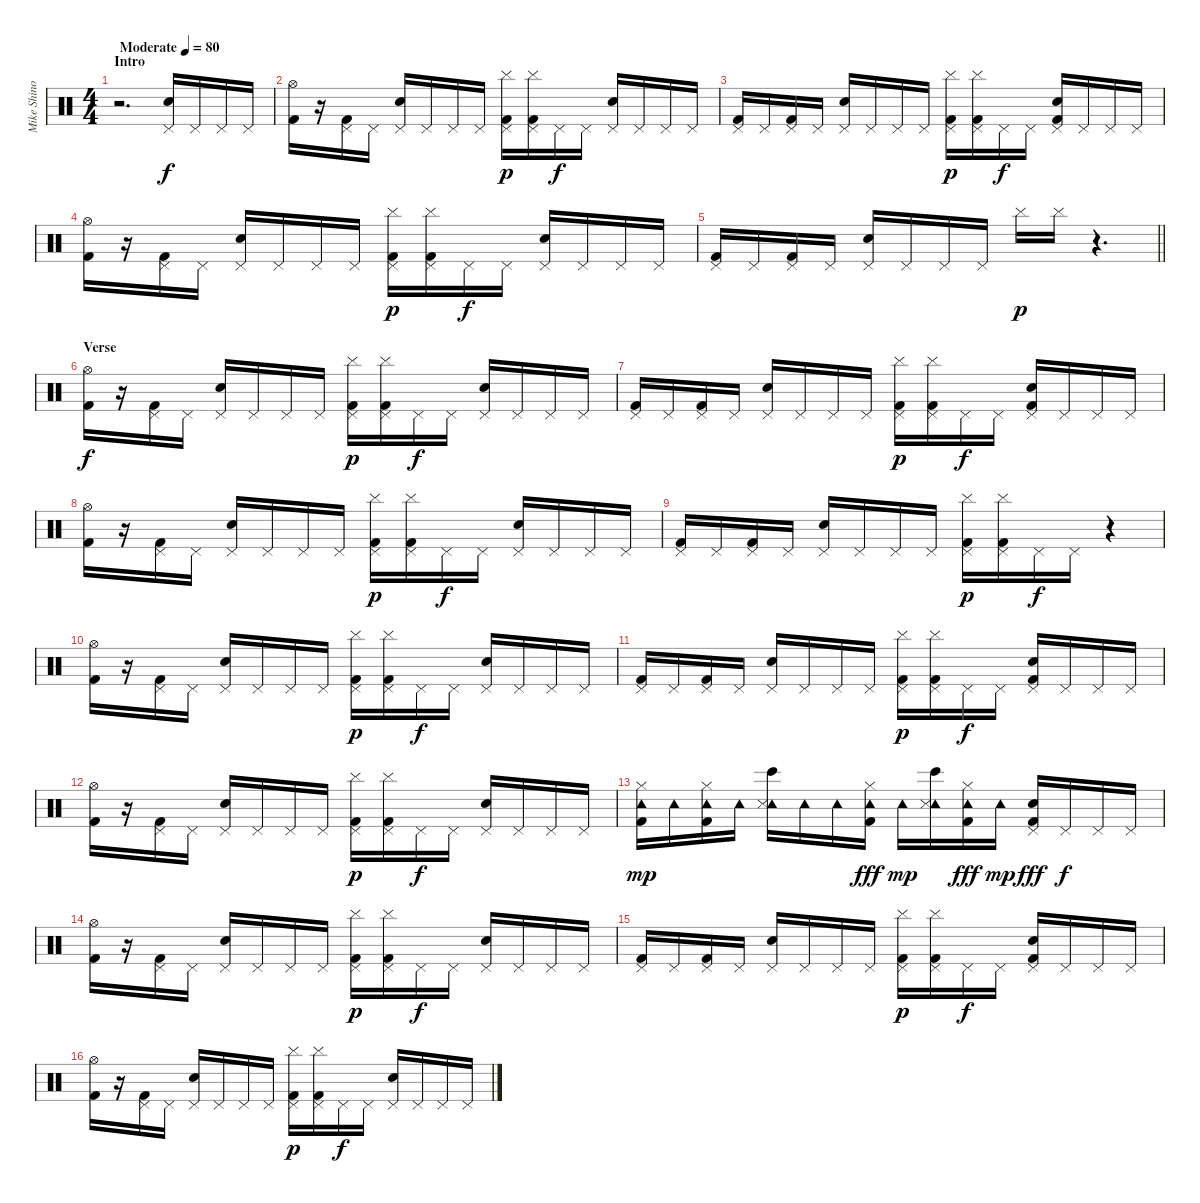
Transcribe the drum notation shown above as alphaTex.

\track ("Mike Shinoda - Percussion" "Mike Shino") {instrument percussion}
\staff {score}
\articulation defaults
\ts (4 4)
\section ("" "Intro")
\tempo (80 "Moderate")
\clef neutral
\ks c
r.2{d dy f} ("Pedal Hi-Hat (hit)" "Electric Snare (hit)").16 "Pedal Hi-Hat (hit)".16 "Pedal Hi-Hat (hit)".16 "Pedal Hi-Hat (hit)".16 |
("Hi-Hat (open)" "Kick (hit) 2").16 r.16 ("Pedal Hi-Hat (hit)" "Kick (hit) 2").16 "Pedal Hi-Hat (hit)".16 ("Pedal Hi-Hat (hit)" "Electric Snare (hit)").16 "Pedal Hi-Hat (hit)".16 "Pedal Hi-Hat (hit)".16 "Pedal Hi-Hat (hit)".16 ("Pedal Hi-Hat (hit)" "Cymbal (hit)" "Kick (hit) 2").16{dy p} ("Pedal Hi-Hat (hit)" "Cymbal (hit)" "Kick (hit) 2").16 "Pedal Hi-Hat (hit)".16{dy f} "Pedal Hi-Hat (hit)".16 ("Pedal Hi-Hat (hit)" "Electric Snare (hit)").16 "Pedal Hi-Hat (hit)".16 "Pedal Hi-Hat (hit)".16 "Pedal Hi-Hat (hit)".16 |
("Pedal Hi-Hat (hit)" "Kick (hit) 2").16 "Pedal Hi-Hat (hit)".16 ("Pedal Hi-Hat (hit)" "Kick (hit) 2").16 "Pedal Hi-Hat (hit)".16 ("Pedal Hi-Hat (hit)" "Electric Snare (hit)").16 "Pedal Hi-Hat (hit)".16 "Pedal Hi-Hat (hit)".16 "Pedal Hi-Hat (hit)".16 ("Pedal Hi-Hat (hit)" "Cymbal (hit)" "Kick (hit) 2").16{dy p} ("Pedal Hi-Hat (hit)" "Cymbal (hit)" "Kick (hit) 2").16 "Pedal Hi-Hat (hit)".16{dy f} "Pedal Hi-Hat (hit)".16 ("Pedal Hi-Hat (hit)" "Electric Snare (hit)" "Kick (hit) 2").16 "Pedal Hi-Hat (hit)".16 "Pedal Hi-Hat (hit)".16 "Pedal Hi-Hat (hit)".16 |
("Hi-Hat (open)" "Kick (hit) 2").16 r.16 ("Pedal Hi-Hat (hit)" "Kick (hit) 2").16 "Pedal Hi-Hat (hit)".16 ("Pedal Hi-Hat (hit)" "Electric Snare (hit)").16 "Pedal Hi-Hat (hit)".16 "Pedal Hi-Hat (hit)".16 "Pedal Hi-Hat (hit)".16 ("Pedal Hi-Hat (hit)" "Cymbal (hit)" "Kick (hit) 2").16{dy p} ("Pedal Hi-Hat (hit)" "Cymbal (hit)" "Kick (hit) 2").16 "Pedal Hi-Hat (hit)".16{dy f} "Pedal Hi-Hat (hit)".16 ("Pedal Hi-Hat (hit)" "Electric Snare (hit)").16 "Pedal Hi-Hat (hit)".16 "Pedal Hi-Hat (hit)".16 "Pedal Hi-Hat (hit)".16 |
\barLineRight lightlight
("Pedal Hi-Hat (hit)" "Kick (hit) 2").16 "Pedal Hi-Hat (hit)".16 ("Pedal Hi-Hat (hit)" "Kick (hit) 2").16 "Pedal Hi-Hat (hit)".16 ("Pedal Hi-Hat (hit)" "Electric Snare (hit)").16 "Pedal Hi-Hat (hit)".16 "Pedal Hi-Hat (hit)".16 "Pedal Hi-Hat (hit)".16 "Cymbal (hit)".16{dy p} "Cymbal (hit)".16 r.4{d} |
\section ("" "Verse")
("Hi-Hat (open)" "Kick (hit) 2").16{dy f} r.16 ("Pedal Hi-Hat (hit)" "Kick (hit) 2").16 "Pedal Hi-Hat (hit)".16 ("Pedal Hi-Hat (hit)" "Electric Snare (hit)").16 "Pedal Hi-Hat (hit)".16 "Pedal Hi-Hat (hit)".16 "Pedal Hi-Hat (hit)".16 ("Pedal Hi-Hat (hit)" "Cymbal (hit)" "Kick (hit) 2").16{dy p} ("Pedal Hi-Hat (hit)" "Cymbal (hit)" "Kick (hit) 2").16 "Pedal Hi-Hat (hit)".16{dy f} "Pedal Hi-Hat (hit)".16 ("Pedal Hi-Hat (hit)" "Electric Snare (hit)").16 "Pedal Hi-Hat (hit)".16 "Pedal Hi-Hat (hit)".16 "Pedal Hi-Hat (hit)".16 |
("Pedal Hi-Hat (hit)" "Kick (hit) 2").16 "Pedal Hi-Hat (hit)".16 ("Pedal Hi-Hat (hit)" "Kick (hit) 2").16 "Pedal Hi-Hat (hit)".16 ("Pedal Hi-Hat (hit)" "Electric Snare (hit)").16 "Pedal Hi-Hat (hit)".16 "Pedal Hi-Hat (hit)".16 "Pedal Hi-Hat (hit)".16 ("Pedal Hi-Hat (hit)" "Cymbal (hit)" "Kick (hit) 2").16{dy p} ("Pedal Hi-Hat (hit)" "Cymbal (hit)" "Kick (hit) 2").16 "Pedal Hi-Hat (hit)".16{dy f} "Pedal Hi-Hat (hit)".16 ("Pedal Hi-Hat (hit)" "Electric Snare (hit)" "Kick (hit) 2").16 "Pedal Hi-Hat (hit)".16 "Pedal Hi-Hat (hit)".16 "Pedal Hi-Hat (hit)".16 |
("Hi-Hat (open)" "Kick (hit) 2").16 r.16 ("Pedal Hi-Hat (hit)" "Kick (hit) 2").16 "Pedal Hi-Hat (hit)".16 ("Pedal Hi-Hat (hit)" "Electric Snare (hit)").16 "Pedal Hi-Hat (hit)".16 "Pedal Hi-Hat (hit)".16 "Pedal Hi-Hat (hit)".16 ("Pedal Hi-Hat (hit)" "Cymbal (hit)" "Kick (hit) 2").16{dy p} ("Pedal Hi-Hat (hit)" "Cymbal (hit)" "Kick (hit) 2").16 "Pedal Hi-Hat (hit)".16{dy f} "Pedal Hi-Hat (hit)".16 ("Pedal Hi-Hat (hit)" "Electric Snare (hit)").16 "Pedal Hi-Hat (hit)".16 "Pedal Hi-Hat (hit)".16 "Pedal Hi-Hat (hit)".16 |
("Pedal Hi-Hat (hit)" "Kick (hit) 2").16 "Pedal Hi-Hat (hit)".16 ("Pedal Hi-Hat (hit)" "Kick (hit) 2").16 "Pedal Hi-Hat (hit)".16 ("Pedal Hi-Hat (hit)" "Electric Snare (hit)").16 "Pedal Hi-Hat (hit)".16 "Pedal Hi-Hat (hit)".16 "Pedal Hi-Hat (hit)".16 ("Pedal Hi-Hat (hit)" "Cymbal (hit)" "Kick (hit) 2").16{dy p} ("Pedal Hi-Hat (hit)" "Cymbal (hit)" "Kick (hit) 2").16 "Pedal Hi-Hat (hit)".16{dy f} "Pedal Hi-Hat (hit)".16 r.4 |
("Hi-Hat (open)" "Kick (hit) 2").16 r.16 ("Pedal Hi-Hat (hit)" "Kick (hit) 2").16 "Pedal Hi-Hat (hit)".16 ("Pedal Hi-Hat (hit)" "Electric Snare (hit)").16 "Pedal Hi-Hat (hit)".16 "Pedal Hi-Hat (hit)".16 "Pedal Hi-Hat (hit)".16 ("Pedal Hi-Hat (hit)" "Cymbal (hit)" "Kick (hit) 2").16{dy p} ("Pedal Hi-Hat (hit)" "Cymbal (hit)" "Kick (hit) 2").16 "Pedal Hi-Hat (hit)".16{dy f} "Pedal Hi-Hat (hit)".16 ("Pedal Hi-Hat (hit)" "Electric Snare (hit)").16 "Pedal Hi-Hat (hit)".16 "Pedal Hi-Hat (hit)".16 "Pedal Hi-Hat (hit)".16 |
("Pedal Hi-Hat (hit)" "Kick (hit) 2").16 "Pedal Hi-Hat (hit)".16 ("Pedal Hi-Hat (hit)" "Kick (hit) 2").16 "Pedal Hi-Hat (hit)".16 ("Pedal Hi-Hat (hit)" "Electric Snare (hit)").16 "Pedal Hi-Hat (hit)".16 "Pedal Hi-Hat (hit)".16 "Pedal Hi-Hat (hit)".16 ("Pedal Hi-Hat (hit)" "Cymbal (hit)" "Kick (hit) 2").16{dy p} ("Pedal Hi-Hat (hit)" "Cymbal (hit)" "Kick (hit) 2").16 "Pedal Hi-Hat (hit)".16{dy f} "Pedal Hi-Hat (hit)".16 ("Pedal Hi-Hat (hit)" "Electric Snare (hit)" "Kick (hit) 2").16 "Pedal Hi-Hat (hit)".16 "Pedal Hi-Hat (hit)".16 "Pedal Hi-Hat (hit)".16 |
("Hi-Hat (open)" "Kick (hit) 2").16 r.16 ("Pedal Hi-Hat (hit)" "Kick (hit) 2").16 "Pedal Hi-Hat (hit)".16 ("Pedal Hi-Hat (hit)" "Electric Snare (hit)").16 "Pedal Hi-Hat (hit)".16 "Pedal Hi-Hat (hit)".16 "Pedal Hi-Hat (hit)".16 ("Pedal Hi-Hat (hit)" "Cymbal (hit)" "Kick (hit) 2").16{dy p} ("Pedal Hi-Hat (hit)" "Cymbal (hit)" "Kick (hit) 2").16 "Pedal Hi-Hat (hit)".16{dy f} "Pedal Hi-Hat (hit)".16 ("Pedal Hi-Hat (hit)" "Electric Snare (hit)").16 "Pedal Hi-Hat (hit)".16 "Pedal Hi-Hat (hit)".16 "Pedal Hi-Hat (hit)".16 |
("Tambourine (hit)" "Hi-Hat (closed)" "Kick (hit) 2").16{dy mp} "Tambourine (hit)".16 ("Tambourine (hit)" "Hi-Hat (closed)" "Kick (hit) 2").16 "Tambourine (hit)".16 ("Tambourine (hit)" "Snare (side stick) 3" "Bongo High (hit)").16 "Tambourine (hit)".16 "Tambourine (hit)".16 ("Tambourine (hit)" "Hi-Hat (closed)" "Kick (hit) 2").16{dy fff} "Tambourine (hit)".16{dy mp} ("Tambourine (hit)" "Snare (side stick) 3" "Bongo High (hit)").16 ("Tambourine (hit)" "Hi-Hat (closed)" "Kick (hit) 2").16{dy fff} "Tambourine (hit)".16{dy mp} ("Pedal Hi-Hat (hit)" "Electric Snare (hit)" "Kick (hit) 2").16{dy fff} "Pedal Hi-Hat (hit)".16{dy f} "Pedal Hi-Hat (hit)".16 "Pedal Hi-Hat (hit)".16 |
("Hi-Hat (open)" "Kick (hit) 2").16 r.16 ("Pedal Hi-Hat (hit)" "Kick (hit) 2").16 "Pedal Hi-Hat (hit)".16 ("Pedal Hi-Hat (hit)" "Electric Snare (hit)").16 "Pedal Hi-Hat (hit)".16 "Pedal Hi-Hat (hit)".16 "Pedal Hi-Hat (hit)".16 ("Pedal Hi-Hat (hit)" "Cymbal (hit)" "Kick (hit) 2").16{dy p} ("Pedal Hi-Hat (hit)" "Cymbal (hit)" "Kick (hit) 2").16 "Pedal Hi-Hat (hit)".16{dy f} "Pedal Hi-Hat (hit)".16 ("Pedal Hi-Hat (hit)" "Electric Snare (hit)").16 "Pedal Hi-Hat (hit)".16 "Pedal Hi-Hat (hit)".16 "Pedal Hi-Hat (hit)".16 |
("Pedal Hi-Hat (hit)" "Kick (hit) 2").16 "Pedal Hi-Hat (hit)".16 ("Pedal Hi-Hat (hit)" "Kick (hit) 2").16 "Pedal Hi-Hat (hit)".16 ("Pedal Hi-Hat (hit)" "Electric Snare (hit)").16 "Pedal Hi-Hat (hit)".16 "Pedal Hi-Hat (hit)".16 "Pedal Hi-Hat (hit)".16 ("Pedal Hi-Hat (hit)" "Cymbal (hit)" "Kick (hit) 2").16{dy p} ("Pedal Hi-Hat (hit)" "Cymbal (hit)" "Kick (hit) 2").16 "Pedal Hi-Hat (hit)".16{dy f} "Pedal Hi-Hat (hit)".16 ("Pedal Hi-Hat (hit)" "Electric Snare (hit)" "Kick (hit) 2").16 "Pedal Hi-Hat (hit)".16 "Pedal Hi-Hat (hit)".16 "Pedal Hi-Hat (hit)".16 |
("Hi-Hat (open)" "Kick (hit) 2").16 r.16 ("Pedal Hi-Hat (hit)" "Kick (hit) 2").16 "Pedal Hi-Hat (hit)".16 ("Pedal Hi-Hat (hit)" "Electric Snare (hit)").16 "Pedal Hi-Hat (hit)".16 "Pedal Hi-Hat (hit)".16 "Pedal Hi-Hat (hit)".16 ("Pedal Hi-Hat (hit)" "Cymbal (hit)" "Kick (hit) 2").16{dy p} ("Pedal Hi-Hat (hit)" "Cymbal (hit)" "Kick (hit) 2").16 "Pedal Hi-Hat (hit)".16{dy f} "Pedal Hi-Hat (hit)".16 ("Pedal Hi-Hat (hit)" "Electric Snare (hit)").16 "Pedal Hi-Hat (hit)".16 "Pedal Hi-Hat (hit)".16 "Pedal Hi-Hat (hit)".16
